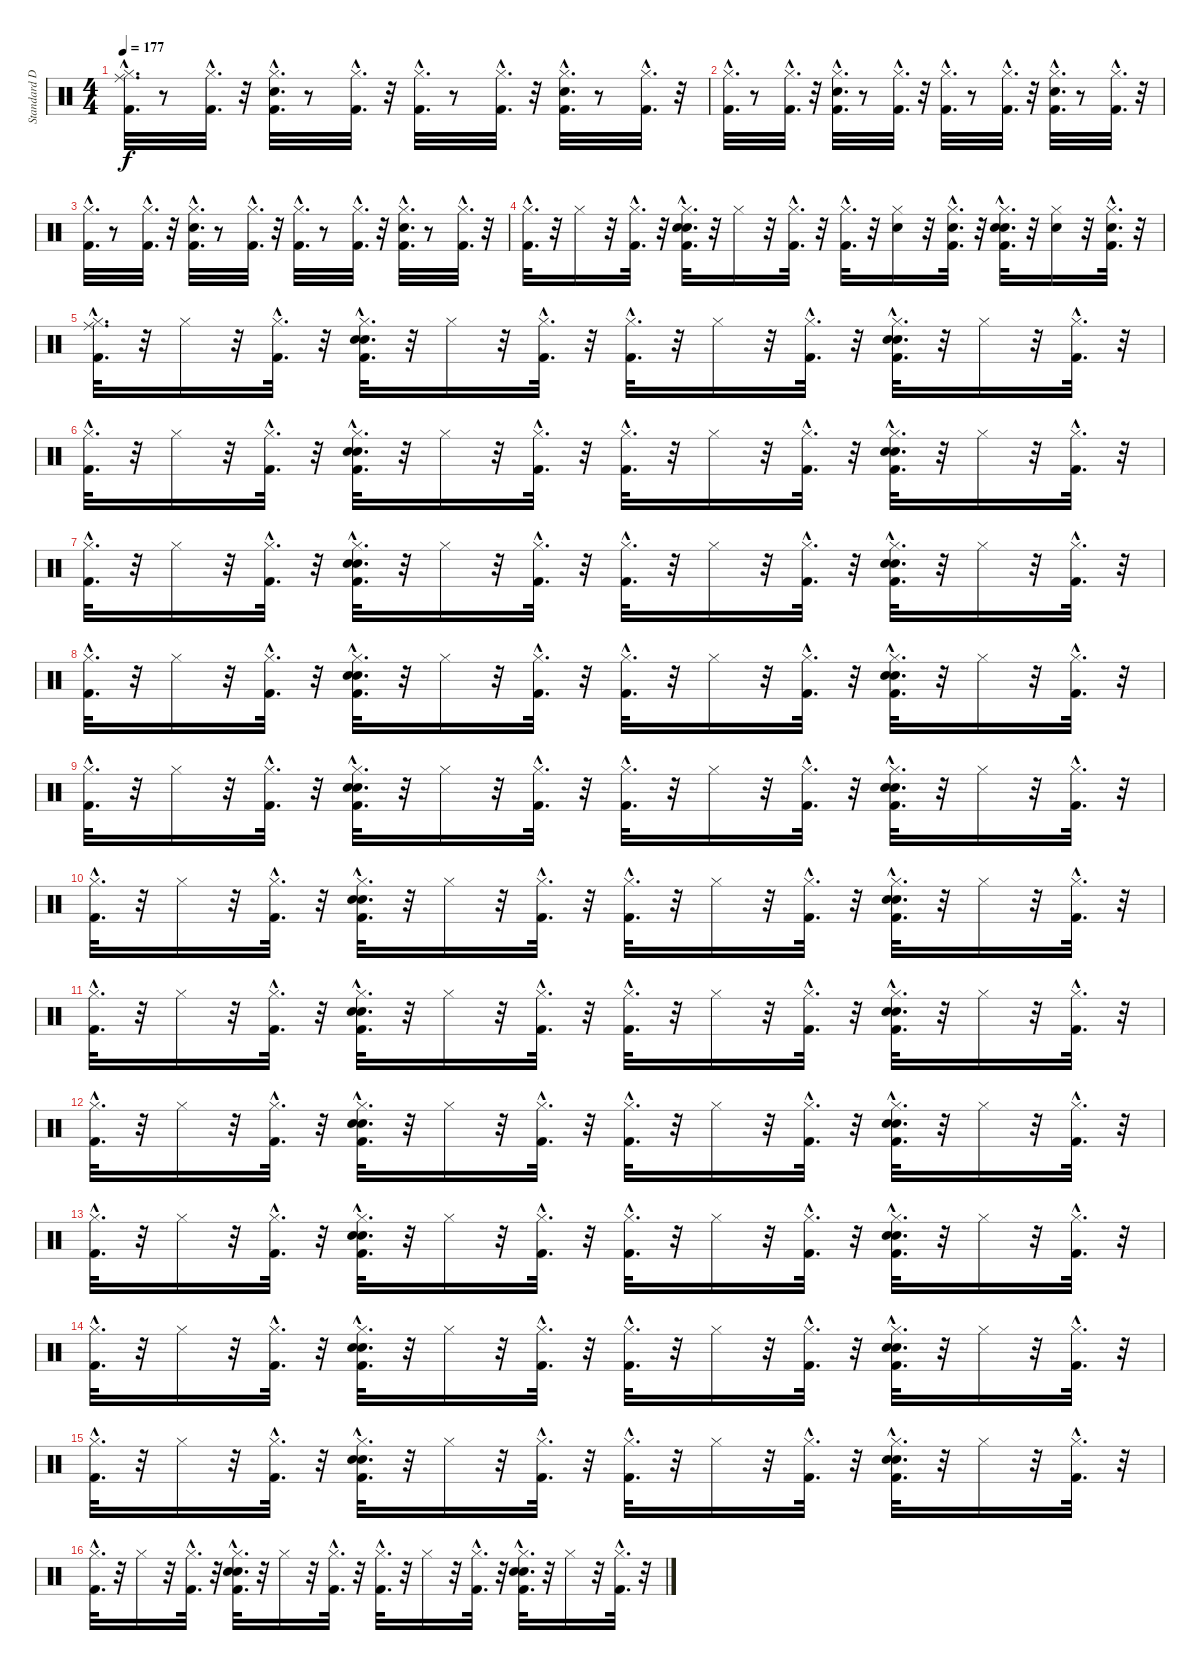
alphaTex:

\track ("Standard Drums" "Standard D") {instrument percussion}
\staff {score}
\articulation defaults
\ts (4 4)
\tempo 177
\clef neutral
\ks c
("Kick (hit) 2"{hac} "Hi-Hat (closed)"{hac} "Ride (middle)"{hac}).32{d dy f} r.8 ("Kick (hit) 2"{hac} "Hi-Hat (closed)"{hac}).32{d} r.32 ("Kick (hit) 2"{hac} "Snare (hit) 2"{hac} "Hi-Hat (closed)"{hac}).32{d} r.8 ("Kick (hit) 2"{hac} "Hi-Hat (closed)"{hac}).32{d} r.32 ("Kick (hit) 2"{hac} "Hi-Hat (closed)"{hac}).32{d} r.8 ("Kick (hit) 2"{hac} "Hi-Hat (closed)"{hac}).32{d} r.32 ("Kick (hit) 2"{hac} "Snare (hit) 2"{hac} "Hi-Hat (closed)"{hac}).32{d} r.8 ("Kick (hit) 2"{hac} "Hi-Hat (closed)"{hac}).32{d} r.32 |
("Kick (hit) 2"{hac} "Hi-Hat (closed)"{hac}).32{d} r.8 ("Kick (hit) 2"{hac} "Hi-Hat (closed)"{hac}).32{d} r.32 ("Kick (hit) 2"{hac} "Snare (hit) 2"{hac} "Hi-Hat (closed)"{hac}).32{d} r.8 ("Kick (hit) 2"{hac} "Hi-Hat (closed)"{hac}).32{d} r.32 ("Kick (hit) 2"{hac} "Hi-Hat (closed)"{hac}).32{d} r.8 ("Kick (hit) 2"{hac} "Hi-Hat (closed)"{hac}).32{d} r.32 ("Kick (hit) 2"{hac} "Snare (hit) 2"{hac} "Hi-Hat (closed)"{hac}).32{d} r.8 ("Kick (hit) 2"{hac} "Hi-Hat (closed)"{hac}).32{d} r.32 |
("Kick (hit) 2"{hac} "Hi-Hat (closed)"{hac}).32{d} r.8 ("Kick (hit) 2"{hac} "Hi-Hat (closed)"{hac}).32{d} r.32 ("Kick (hit) 2"{hac} "Snare (hit) 2"{hac} "Hi-Hat (closed)"{hac}).32{d} r.8 ("Kick (hit) 2"{hac} "Hi-Hat (closed)"{hac}).32{d} r.32 ("Kick (hit) 2"{hac} "Hi-Hat (closed)"{hac}).32{d} r.8 ("Kick (hit) 2"{hac} "Hi-Hat (closed)"{hac}).32{d} r.32 ("Kick (hit) 2"{hac} "Snare (hit) 2"{hac} "Hi-Hat (closed)"{hac}).32{d} r.8 ("Kick (hit) 2"{hac} "Hi-Hat (closed)"{hac}).32{d} r.32 |
("Kick (hit) 2"{hac} "Hi-Hat (closed)"{hac}).32{d} r.32 "Hi-Hat (closed)".16 r.32 ("Kick (hit) 2"{hac} "Hi-Hat (closed)"{hac}).32{d} r.32 ("Kick (hit) 2"{hac} "Snare (hit) 2"{hac} "Hi-Hat (closed)"{hac} "Hand Clap (hit)"{hac}).32{d} r.32 "Hi-Hat (closed)".16 r.32 ("Kick (hit) 2"{hac} "Hi-Hat (closed)"{hac}).32{d} r.32 ("Kick (hit) 2"{hac} "Hi-Hat (closed)"{hac}).32{d} r.32 ("Snare (hit) 2" "Hi-Hat (closed)").16 r.32 ("Kick (hit) 2"{hac} "Snare (hit) 2"{hac} "Hi-Hat (closed)"{hac}).32{d} r.32 ("Kick (hit) 2"{hac} "Snare (hit) 2"{hac} "Hi-Hat (closed)"{hac} "Hand Clap (hit)"{hac}).32{d} r.32 ("Snare (hit) 2" "Hi-Hat (closed)").16 r.32 ("Kick (hit) 2"{hac} "Snare (hit) 2"{hac} "Hi-Hat (closed)"{hac}).32{d} r.32 |
("Kick (hit) 2"{hac} "Hi-Hat (closed)"{hac} "Ride (middle)"{hac}).32{d} r.32 "Hi-Hat (closed)".16 r.32 ("Kick (hit) 2"{hac} "Hi-Hat (closed)"{hac}).32{d} r.32 ("Kick (hit) 2"{hac} "Snare (hit) 2"{hac} "Hi-Hat (closed)"{hac} "Hand Clap (hit)"{hac}).32{d} r.32 "Hi-Hat (closed)".16 r.32 ("Kick (hit) 2"{hac} "Hi-Hat (closed)"{hac}).32{d} r.32 ("Kick (hit) 2"{hac} "Hi-Hat (closed)"{hac}).32{d} r.32 "Hi-Hat (closed)".16 r.32 ("Kick (hit) 2"{hac} "Hi-Hat (closed)"{hac}).32{d} r.32 ("Kick (hit) 2"{hac} "Snare (hit) 2"{hac} "Hi-Hat (closed)"{hac} "Hand Clap (hit)"{hac}).32{d} r.32 "Hi-Hat (closed)".16 r.32 ("Kick (hit) 2"{hac} "Hi-Hat (closed)"{hac}).32{d} r.32 |
("Kick (hit) 2"{hac} "Hi-Hat (closed)"{hac}).32{d} r.32 "Hi-Hat (closed)".16 r.32 ("Kick (hit) 2"{hac} "Hi-Hat (closed)"{hac}).32{d} r.32 ("Kick (hit) 2"{hac} "Snare (hit) 2"{hac} "Hi-Hat (closed)"{hac} "Hand Clap (hit)"{hac}).32{d} r.32 "Hi-Hat (closed)".16 r.32 ("Kick (hit) 2"{hac} "Hi-Hat (closed)"{hac}).32{d} r.32 ("Kick (hit) 2"{hac} "Hi-Hat (closed)"{hac}).32{d} r.32 "Hi-Hat (closed)".16 r.32 ("Kick (hit) 2"{hac} "Hi-Hat (closed)"{hac}).32{d} r.32 ("Kick (hit) 2"{hac} "Snare (hit) 2"{hac} "Hi-Hat (closed)"{hac} "Hand Clap (hit)"{hac}).32{d} r.32 "Hi-Hat (closed)".16 r.32 ("Kick (hit) 2"{hac} "Hi-Hat (closed)"{hac}).32{d} r.32 |
("Kick (hit) 2"{hac} "Hi-Hat (closed)"{hac}).32{d} r.32 "Hi-Hat (closed)".16 r.32 ("Kick (hit) 2"{hac} "Hi-Hat (closed)"{hac}).32{d} r.32 ("Kick (hit) 2"{hac} "Snare (hit) 2"{hac} "Hi-Hat (closed)"{hac} "Hand Clap (hit)"{hac}).32{d} r.32 "Hi-Hat (closed)".16 r.32 ("Kick (hit) 2"{hac} "Hi-Hat (closed)"{hac}).32{d} r.32 ("Kick (hit) 2"{hac} "Hi-Hat (closed)"{hac}).32{d} r.32 "Hi-Hat (closed)".16 r.32 ("Kick (hit) 2"{hac} "Hi-Hat (closed)"{hac}).32{d} r.32 ("Kick (hit) 2"{hac} "Snare (hit) 2"{hac} "Hi-Hat (closed)"{hac} "Hand Clap (hit)"{hac}).32{d} r.32 "Hi-Hat (closed)".16 r.32 ("Kick (hit) 2"{hac} "Hi-Hat (closed)"{hac}).32{d} r.32 |
("Kick (hit) 2"{hac} "Hi-Hat (closed)"{hac}).32{d} r.32 "Hi-Hat (closed)".16 r.32 ("Kick (hit) 2"{hac} "Hi-Hat (closed)"{hac}).32{d} r.32 ("Kick (hit) 2"{hac} "Snare (hit) 2"{hac} "Hi-Hat (closed)"{hac} "Hand Clap (hit)"{hac}).32{d} r.32 "Hi-Hat (closed)".16 r.32 ("Kick (hit) 2"{hac} "Hi-Hat (closed)"{hac}).32{d} r.32 ("Kick (hit) 2"{hac} "Hi-Hat (closed)"{hac}).32{d} r.32 "Hi-Hat (closed)".16 r.32 ("Kick (hit) 2"{hac} "Hi-Hat (closed)"{hac}).32{d} r.32 ("Kick (hit) 2"{hac} "Snare (hit) 2"{hac} "Hi-Hat (closed)"{hac} "Hand Clap (hit)"{hac}).32{d} r.32 "Hi-Hat (closed)".16 r.32 ("Kick (hit) 2"{hac} "Hi-Hat (closed)"{hac}).32{d} r.32 |
("Kick (hit) 2"{hac} "Hi-Hat (closed)"{hac}).32{d} r.32 "Hi-Hat (closed)".16 r.32 ("Kick (hit) 2"{hac} "Hi-Hat (closed)"{hac}).32{d} r.32 ("Kick (hit) 2"{hac} "Snare (hit) 2"{hac} "Hi-Hat (closed)"{hac} "Hand Clap (hit)"{hac}).32{d} r.32 "Hi-Hat (closed)".16 r.32 ("Kick (hit) 2"{hac} "Hi-Hat (closed)"{hac}).32{d} r.32 ("Kick (hit) 2"{hac} "Hi-Hat (closed)"{hac}).32{d} r.32 "Hi-Hat (closed)".16 r.32 ("Kick (hit) 2"{hac} "Hi-Hat (closed)"{hac}).32{d} r.32 ("Kick (hit) 2"{hac} "Snare (hit) 2"{hac} "Hi-Hat (closed)"{hac} "Hand Clap (hit)"{hac}).32{d} r.32 "Hi-Hat (closed)".16 r.32 ("Kick (hit) 2"{hac} "Hi-Hat (closed)"{hac}).32{d} r.32 |
("Kick (hit) 2"{hac} "Hi-Hat (closed)"{hac}).32{d} r.32 "Hi-Hat (closed)".16 r.32 ("Kick (hit) 2"{hac} "Hi-Hat (closed)"{hac}).32{d} r.32 ("Kick (hit) 2"{hac} "Snare (hit) 2"{hac} "Hi-Hat (closed)"{hac} "Hand Clap (hit)"{hac}).32{d} r.32 "Hi-Hat (closed)".16 r.32 ("Kick (hit) 2"{hac} "Hi-Hat (closed)"{hac}).32{d} r.32 ("Kick (hit) 2"{hac} "Hi-Hat (closed)"{hac}).32{d} r.32 "Hi-Hat (closed)".16 r.32 ("Kick (hit) 2"{hac} "Hi-Hat (closed)"{hac}).32{d} r.32 ("Kick (hit) 2"{hac} "Snare (hit) 2"{hac} "Hi-Hat (closed)"{hac} "Hand Clap (hit)"{hac}).32{d} r.32 "Hi-Hat (closed)".16 r.32 ("Kick (hit) 2"{hac} "Hi-Hat (closed)"{hac}).32{d} r.32 |
("Kick (hit) 2"{hac} "Hi-Hat (closed)"{hac}).32{d} r.32 "Hi-Hat (closed)".16 r.32 ("Kick (hit) 2"{hac} "Hi-Hat (closed)"{hac}).32{d} r.32 ("Kick (hit) 2"{hac} "Snare (hit) 2"{hac} "Hi-Hat (closed)"{hac} "Hand Clap (hit)"{hac}).32{d} r.32 "Hi-Hat (closed)".16 r.32 ("Kick (hit) 2"{hac} "Hi-Hat (closed)"{hac}).32{d} r.32 ("Kick (hit) 2"{hac} "Hi-Hat (closed)"{hac}).32{d} r.32 "Hi-Hat (closed)".16 r.32 ("Kick (hit) 2"{hac} "Hi-Hat (closed)"{hac}).32{d} r.32 ("Kick (hit) 2"{hac} "Snare (hit) 2"{hac} "Hi-Hat (closed)"{hac} "Hand Clap (hit)"{hac}).32{d} r.32 "Hi-Hat (closed)".16 r.32 ("Kick (hit) 2"{hac} "Hi-Hat (closed)"{hac}).32{d} r.32 |
("Kick (hit) 2"{hac} "Hi-Hat (closed)"{hac}).32{d} r.32 "Hi-Hat (closed)".16 r.32 ("Kick (hit) 2"{hac} "Hi-Hat (closed)"{hac}).32{d} r.32 ("Kick (hit) 2"{hac} "Snare (hit) 2"{hac} "Hi-Hat (closed)"{hac} "Hand Clap (hit)"{hac}).32{d} r.32 "Hi-Hat (closed)".16 r.32 ("Kick (hit) 2"{hac} "Hi-Hat (closed)"{hac}).32{d} r.32 ("Kick (hit) 2"{hac} "Hi-Hat (closed)"{hac}).32{d} r.32 "Hi-Hat (closed)".16 r.32 ("Kick (hit) 2"{hac} "Hi-Hat (closed)"{hac}).32{d} r.32 ("Kick (hit) 2"{hac} "Snare (hit) 2"{hac} "Hi-Hat (closed)"{hac} "Hand Clap (hit)"{hac}).32{d} r.32 "Hi-Hat (closed)".16 r.32 ("Kick (hit) 2"{hac} "Hi-Hat (closed)"{hac}).32{d} r.32 |
("Kick (hit) 2"{hac} "Hi-Hat (closed)"{hac}).32{d} r.32 "Hi-Hat (closed)".16 r.32 ("Kick (hit) 2"{hac} "Hi-Hat (closed)"{hac}).32{d} r.32 ("Kick (hit) 2"{hac} "Snare (hit) 2"{hac} "Hi-Hat (closed)"{hac} "Hand Clap (hit)"{hac}).32{d} r.32 "Hi-Hat (closed)".16 r.32 ("Kick (hit) 2"{hac} "Hi-Hat (closed)"{hac}).32{d} r.32 ("Kick (hit) 2"{hac} "Hi-Hat (closed)"{hac}).32{d} r.32 "Hi-Hat (closed)".16 r.32 ("Kick (hit) 2"{hac} "Hi-Hat (closed)"{hac}).32{d} r.32 ("Kick (hit) 2"{hac} "Snare (hit) 2"{hac} "Hi-Hat (closed)"{hac} "Hand Clap (hit)"{hac}).32{d} r.32 "Hi-Hat (closed)".16 r.32 ("Kick (hit) 2"{hac} "Hi-Hat (closed)"{hac}).32{d} r.32 |
("Kick (hit) 2"{hac} "Hi-Hat (closed)"{hac}).32{d} r.32 "Hi-Hat (closed)".16 r.32 ("Kick (hit) 2"{hac} "Hi-Hat (closed)"{hac}).32{d} r.32 ("Kick (hit) 2"{hac} "Snare (hit) 2"{hac} "Hi-Hat (closed)"{hac} "Hand Clap (hit)"{hac}).32{d} r.32 "Hi-Hat (closed)".16 r.32 ("Kick (hit) 2"{hac} "Hi-Hat (closed)"{hac}).32{d} r.32 ("Kick (hit) 2"{hac} "Hi-Hat (closed)"{hac}).32{d} r.32 "Hi-Hat (closed)".16 r.32 ("Kick (hit) 2"{hac} "Hi-Hat (closed)"{hac}).32{d} r.32 ("Kick (hit) 2"{hac} "Snare (hit) 2"{hac} "Hi-Hat (closed)"{hac} "Hand Clap (hit)"{hac}).32{d} r.32 "Hi-Hat (closed)".16 r.32 ("Kick (hit) 2"{hac} "Hi-Hat (closed)"{hac}).32{d} r.32 |
("Kick (hit) 2"{hac} "Hi-Hat (closed)"{hac}).32{d} r.32 "Hi-Hat (closed)".16 r.32 ("Kick (hit) 2"{hac} "Hi-Hat (closed)"{hac}).32{d} r.32 ("Kick (hit) 2"{hac} "Snare (hit) 2"{hac} "Hi-Hat (closed)"{hac} "Hand Clap (hit)"{hac}).32{d} r.32 "Hi-Hat (closed)".16 r.32 ("Kick (hit) 2"{hac} "Hi-Hat (closed)"{hac}).32{d} r.32 ("Kick (hit) 2"{hac} "Hi-Hat (closed)"{hac}).32{d} r.32 "Hi-Hat (closed)".16 r.32 ("Kick (hit) 2"{hac} "Hi-Hat (closed)"{hac}).32{d} r.32 ("Kick (hit) 2"{hac} "Snare (hit) 2"{hac} "Hi-Hat (closed)"{hac} "Hand Clap (hit)"{hac}).32{d} r.32 "Hi-Hat (closed)".16 r.32 ("Kick (hit) 2"{hac} "Hi-Hat (closed)"{hac}).32{d} r.32 |
("Kick (hit) 2"{hac} "Hi-Hat (closed)"{hac}).32{d} r.32 "Hi-Hat (closed)".16 r.32 ("Kick (hit) 2"{hac} "Hi-Hat (closed)"{hac}).32{d} r.32 ("Kick (hit) 2"{hac} "Snare (hit) 2"{hac} "Hi-Hat (closed)"{hac} "Hand Clap (hit)"{hac}).32{d} r.32 "Hi-Hat (closed)".16 r.32 ("Kick (hit) 2"{hac} "Hi-Hat (closed)"{hac}).32{d} r.32 ("Kick (hit) 2"{hac} "Hi-Hat (closed)"{hac}).32{d} r.32 "Hi-Hat (closed)".16 r.32 ("Kick (hit) 2"{hac} "Hi-Hat (closed)"{hac}).32{d} r.32 ("Kick (hit) 2"{hac} "Snare (hit) 2"{hac} "Hi-Hat (closed)"{hac} "Hand Clap (hit)"{hac}).32{d} r.32 "Hi-Hat (closed)".16 r.32 ("Kick (hit) 2"{hac} "Hi-Hat (closed)"{hac}).32{d} r.32
